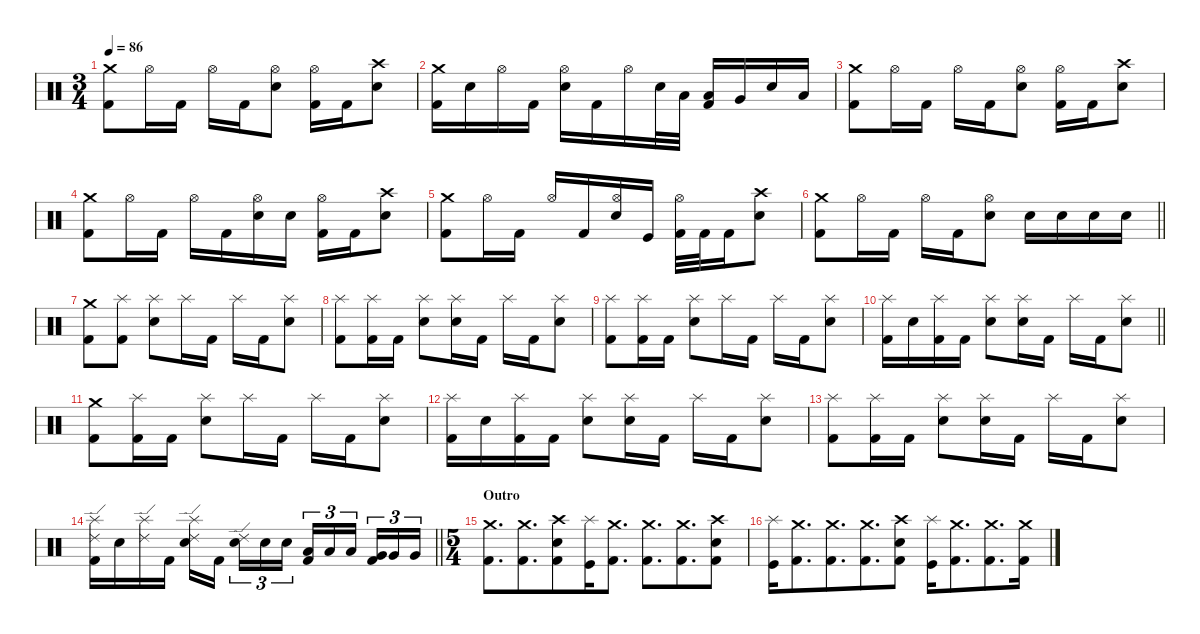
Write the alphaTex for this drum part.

\defaultSystemsLayout 4
\hideDynamics
\bracketExtendMode nobrackets
\singleTrackTrackNamePolicy hidden
\multiTrackTrackNamePolicy hidden
\otherSystemsTrackNameOrientation horizontal
\track ("Drums" "drm.") {instrument percussion}
\staff {score}
\articulation defaults
\ts (3 4)
\tempo 86
\clef neutral
\ks c
("Crash medium (hit)" "Kick (hit) 2").8{dy f beam Down} "Hi-Hat (open)".16{beam Down} "Kick (hit) 2".16{beam Down} "Hi-Hat (open)".16{beam Down} "Kick (hit) 2".16{beam Down} ("Hi-Hat (open)" "Snare (hit) 2").8{beam Down} ("Hi-Hat (open)" "Kick (hit) 2").16{beam Down} "Kick (hit) 2".16{beam Down} ("Crash high (hit)" "Snare (hit) 2").8{beam Down} |
("Crash medium (hit)" "Kick (hit) 2").16{beam Down} "Snare (hit) 2".16{beam Down} "Hi-Hat (open)".16{beam Down} "Kick (hit) 2".16{beam Down} ("Hi-Hat (open)" "Snare (hit) 2").16{beam Down} "Kick (hit) 2".16{beam Down} "Hi-Hat (open)".16{beam Down} "Snare (hit) 2".32{beam Down} "Low Tom (hit)".32{beam Down} ("Low Tom (hit)" "Kick (hit) 2").16{beam Up} "Very Low Tom (hit)".16{beam Up} "Snare (hit) 2".16{beam Up} "Low Floor Tom (hit)".16{beam Up} |
("Crash medium (hit)" "Kick (hit) 2").8{beam Down} "Hi-Hat (open)".16{beam Down} "Kick (hit) 2".16{beam Down} "Hi-Hat (open)".16{beam Down} "Kick (hit) 2".16{beam Down} ("Hi-Hat (open)" "Snare (hit) 2").8{beam Down} ("Hi-Hat (open)" "Kick (hit) 2").16{beam Down} "Kick (hit) 2".16{beam Down} ("Crash high (hit)" "Snare (hit) 2").8{beam Down} |
("Crash medium (hit)" "Kick (hit) 2").8{beam Down} "Hi-Hat (open)".16{beam Down} "Kick (hit) 2".16{beam Down} "Hi-Hat (open)".16{beam Down} "Kick (hit) 2".16{beam Down} ("Hi-Hat (open)" "Snare (hit) 2").16{beam Down} "Snare (hit) 2".16{beam Down} ("Hi-Hat (open)" "Kick (hit) 2").16{beam Down} "Kick (hit) 2".16{beam Down} ("Crash high (hit)" "Snare (hit) 2").8{beam Down} |
("Crash medium (hit)" "Kick (hit) 2").8{beam Down} "Hi-Hat (open)".16{beam Down} "Kick (hit) 2".16{beam Down} "Hi-Hat (open)".16{beam Up} "Kick (hit) 2".16{beam Up} ("Hi-Hat (open)" "Snare (hit) 2").16{beam Up} "Kick (hit)".16{beam Up} ("Hi-Hat (open)" "Kick (hit) 2").32{beam Down} "Kick (hit) 2".32{beam Down} "Kick (hit) 2".16{beam Down} ("Crash high (hit)" "Snare (hit) 2").8{beam Down} |
\barLineRight lightlight
("Crash medium (hit)" "Kick (hit) 2").8{beam Down} "Hi-Hat (open)".16{beam Down} "Kick (hit) 2".16{beam Down} "Hi-Hat (open)".16{beam Down} "Kick (hit) 2".16{beam Down} ("Hi-Hat (open)" "Snare (hit) 2").8{beam Down} "Snare (hit) 2".16{beam Down} "Snare (hit) 2".16{beam Down} "Snare (hit) 2".16{beam Down} "Snare (hit) 2".16{beam Down} |
("Crash medium (hit)" "Kick (hit) 2").8{beam Down} ("Splash (hit)" "Kick (hit) 2").8{beam Down} ("Splash (hit)" "Snare (hit) 2").8{beam Down} "Splash (hit)".16{beam Down} "Kick (hit) 2".16{beam Down} "Splash (hit)".16{beam Down} "Kick (hit) 2".16{beam Down} ("Splash (hit)" "Snare (hit) 2").8{beam Down} |
("Splash (hit)" "Kick (hit) 2").8{beam Down} ("Splash (hit)" "Kick (hit) 2").16{beam Down} "Kick (hit) 2".16{beam Down} ("Splash (hit)" "Snare (hit) 2").8{beam Down} ("Splash (hit)" "Snare (hit) 2").16{beam Down} "Kick (hit) 2".16{beam Down} "Splash (hit)".16{beam Down} "Kick (hit) 2".16{beam Down} ("Splash (hit)" "Snare (hit) 2").8{beam Down} |
("Splash (hit)" "Kick (hit) 2").8{beam Down} ("Splash (hit)" "Kick (hit) 2").16{beam Down} "Kick (hit) 2".16{beam Down} ("Splash (hit)" "Snare (hit) 2").8{beam Down} "Splash (hit)".16{beam Down} "Kick (hit) 2".16{beam Down} "Splash (hit)".16{beam Down} "Kick (hit) 2".16{beam Down} ("Splash (hit)" "Snare (hit) 2").8{beam Down} |
\barLineRight lightlight
("Splash (hit)" "Kick (hit) 2").16{beam Down} "Snare (hit) 2".16{beam Down} ("Splash (hit)" "Kick (hit) 2").16{beam Down} "Kick (hit) 2".16{beam Down} ("Splash (hit)" "Snare (hit) 2").8{beam Down} ("Splash (hit)" "Snare (hit) 2").16{beam Down} "Kick (hit) 2".16{beam Down} "Splash (hit)".16{beam Down} "Kick (hit) 2".16{beam Down} ("Splash (hit)" "Snare (hit) 2").8{beam Down} |
("Crash medium (hit)" "Kick (hit) 2").8{beam Down} ("Splash (hit)" "Kick (hit) 2").16{beam Down} "Kick (hit) 2".16{beam Down} ("Splash (hit)" "Snare (hit) 2").8{beam Down} "Splash (hit)".16{beam Down} "Kick (hit) 2".16{beam Down} "Splash (hit)".16{beam Down} "Kick (hit) 2".16{beam Down} ("Splash (hit)" "Snare (hit) 2").8{beam Down} |
("Splash (hit)" "Kick (hit) 2").16{beam Down} "Snare (hit) 2".16{beam Down} ("Splash (hit)" "Kick (hit) 2").16{beam Down} "Kick (hit) 2".16{beam Down} ("Splash (hit)" "Snare (hit) 2").8{beam Down} ("Splash (hit)" "Snare (hit) 2").16{beam Down} "Kick (hit) 2".16{beam Down} "Splash (hit)".16{beam Down} "Kick (hit) 2".16{beam Down} ("Splash (hit)" "Snare (hit) 2").8{beam Down} |
("Splash (hit)" "Kick (hit) 2").8{beam Down} ("Splash (hit)" "Kick (hit) 2").16{beam Down} "Kick (hit) 2".16{beam Down} ("Splash (hit)" "Snare (hit) 2").8{beam Down} ("Splash (hit)" "Snare (hit) 2").16{beam Down} "Kick (hit) 2".16{beam Down} "Splash (hit)".16{beam Down} "Kick (hit) 2".16{beam Down} ("Splash (hit)" "Snare (hit) 2").8{beam Down} |
\barLineRight lightlight
("Ride (edge) 2" "Splash (hit)" "Kick (hit) 2").16{beam Down} "Snare (hit) 2".16{beam Down} ("Ride (edge) 2" "Splash (hit)").16{beam Down} "Kick (hit) 2".16{beam Down} ("Ride (edge) 2" "Splash (hit)" "Snare (hit) 2").16{beam Down} "Kick (hit) 2".16{beam Down} ("Ride (edge) 2" "Snare (hit) 2").16{tu (3 2) beam Down} "Snare (hit) 2".16{tu (3 2) beam Down} "Snare (hit) 2".16{tu (3 2) beam Down} ("Low Tom (hit)" "Kick (hit) 2").16{tu (3 2) beam Up} "Low Tom (hit)".16{tu (3 2) beam Up} "Low Tom (hit)".16{tu (3 2) beam Up} ("Very Low Tom (hit)" "Kick (hit) 2").16{tu (3 2) beam Up} "Very Low Tom (hit)".16{tu (3 2) beam Up} "Very Low Tom (hit)".16{tu (3 2) beam Up} |
\ts (5 4)
\beaming (8 6 4)
\section ("" "Outro")
("Crash medium (hit)" "Kick (hit) 2").8{d beam Down} ("Crash medium (hit)" "Kick (hit) 2").8{d beam Down} ("Crash high (hit)" "Snare (hit) 2" "Kick (hit) 2").8{beam Down} ("Splash (hit)" "Kick (hit)").16{beam Down} ("Crash medium (hit)" "Kick (hit) 2").8{d beam Down} ("Crash medium (hit)" "Kick (hit) 2").8{d beam Down} ("Crash medium (hit)" "Kick (hit) 2").8{d beam Down} ("Crash high (hit)" "Snare (hit) 2" "Kick (hit) 2").8{beam Down} |
("Splash (hit)" "Kick (hit)").16{beam Down} ("Crash medium (hit)" "Kick (hit) 2").8{d beam Down} ("Crash medium (hit)" "Kick (hit) 2").8{d beam Down} ("Crash medium (hit)" "Kick (hit) 2").8{d beam Down} ("Crash high (hit)" "Snare (hit) 2" "Kick (hit) 2").8{beam Down} ("Splash (hit)" "Kick (hit)").16{beam Down} ("Crash medium (hit)" "Kick (hit) 2").8{d beam Down} ("Crash medium (hit)" "Kick (hit) 2").8{d beam Down} ("Crash medium (hit)" "Kick (hit) 2").16{beam Down}
